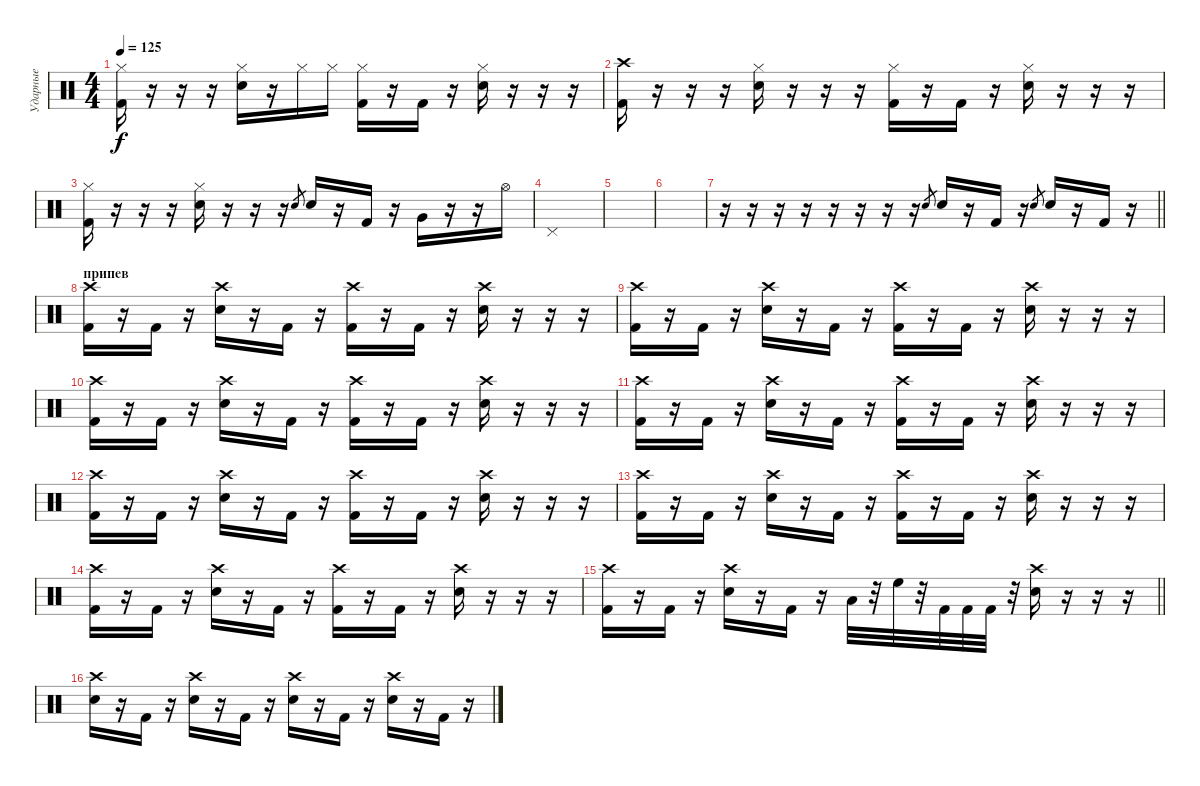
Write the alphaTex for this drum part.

\track ("Ударные" "Ударные") {instrument percussion}
\staff {score}
\articulation defaults
\ts (4 4)
\tempo 125
\clef neutral
\ks c
("Hi-Hat (closed)" "Kick (hit) 2").16{dy f} r.16 r.16 r.16 ("Hi-Hat (closed)" "Electric Snare (hit)").16 r.16 "Hi-Hat (closed)".16 "Hi-Hat (closed)".16 ("Hi-Hat (closed)" "Kick (hit) 2").16 r.16 "Kick (hit) 2".16 r.16 ("Hi-Hat (closed)" "Electric Snare (hit)").16 r.16 r.16 r.16 |
("Crash high (hit)" "Kick (hit) 2").16 r.16 r.16 r.16 ("Hi-Hat (closed)" "Electric Snare (hit)").16 r.16 r.16 r.16 ("Hi-Hat (closed)" "Kick (hit) 2").16 r.16 "Kick (hit) 2".16 r.16 ("Hi-Hat (closed)" "Electric Snare (hit)").16 r.16 r.16 r.16 |
("Hi-Hat (closed)" "Kick (hit) 2").16 r.16 r.16 r.16 ("Hi-Hat (closed)" "Electric Snare (hit)").16 r.16 r.16 r.16 "Electric Snare (hit)".8{gr} "Electric Snare (hit)".16 r.16 "Kick (hit) 2".16 r.16 "Very Low Tom (hit)".16 r.16 r.16 "Hi-Hat (open)".16 |
"Pedal Hi-Hat (hit)".1 |
|
|
\barLineRight lightlight
r.16 r.16 r.16 r.16 r.16 r.16 r.16 r.16 "Electric Snare (hit)".8{gr} "Electric Snare (hit)".16 r.16 "Kick (hit) 2".16 r.16 "Electric Snare (hit)".8{gr} "Electric Snare (hit)".16 r.16 "Kick (hit) 2".16 r.16 |
\section ("" "припев")
("Crash high (hit)" "Kick (hit) 2").16 r.16 "Kick (hit) 2".16 r.16 ("Crash high (hit)" "Electric Snare (hit)").16 r.16 "Kick (hit) 2".16 r.16 ("Crash high (hit)" "Kick (hit) 2").16 r.16 "Kick (hit) 2".16 r.16 ("Crash high (hit)" "Electric Snare (hit)").16 r.16 r.16 r.16 |
("Crash high (hit)" "Kick (hit) 2").16 r.16 "Kick (hit) 2".16 r.16 ("Crash high (hit)" "Electric Snare (hit)").16 r.16 "Kick (hit) 2".16 r.16 ("Crash high (hit)" "Kick (hit) 2").16 r.16 "Kick (hit) 2".16 r.16 ("Crash high (hit)" "Electric Snare (hit)").16 r.16 r.16 r.16 |
("Crash high (hit)" "Kick (hit) 2").16 r.16 "Kick (hit) 2".16 r.16 ("Crash high (hit)" "Electric Snare (hit)").16 r.16 "Kick (hit) 2".16 r.16 ("Crash high (hit)" "Kick (hit) 2").16 r.16 "Kick (hit) 2".16 r.16 ("Crash high (hit)" "Electric Snare (hit)").16 r.16 r.16 r.16 |
("Crash high (hit)" "Kick (hit) 2").16 r.16 "Kick (hit) 2".16 r.16 ("Crash high (hit)" "Electric Snare (hit)").16 r.16 "Kick (hit) 2".16 r.16 ("Crash high (hit)" "Kick (hit) 2").16 r.16 "Kick (hit) 2".16 r.16 ("Crash high (hit)" "Electric Snare (hit)").16 r.16 r.16 r.16 |
("Crash high (hit)" "Kick (hit) 2").16 r.16 "Kick (hit) 2".16 r.16 ("Crash high (hit)" "Electric Snare (hit)").16 r.16 "Kick (hit) 2".16 r.16 ("Crash high (hit)" "Kick (hit) 2").16 r.16 "Kick (hit) 2".16 r.16 ("Crash high (hit)" "Electric Snare (hit)").16 r.16 r.16 r.16 |
("Crash high (hit)" "Kick (hit) 2").16 r.16 "Kick (hit) 2".16 r.16 ("Crash high (hit)" "Electric Snare (hit)").16 r.16 "Kick (hit) 2".16 r.16 ("Crash high (hit)" "Kick (hit) 2").16 r.16 "Kick (hit) 2".16 r.16 ("Crash high (hit)" "Electric Snare (hit)").16 r.16 r.16 r.16 |
("Crash high (hit)" "Kick (hit) 2").16 r.16 "Kick (hit) 2".16 r.16 ("Crash high (hit)" "Electric Snare (hit)").16 r.16 "Kick (hit) 2".16 r.16 ("Crash high (hit)" "Kick (hit) 2").16 r.16 "Kick (hit) 2".16 r.16 ("Crash high (hit)" "Electric Snare (hit)").16 r.16 r.16 r.16 |
\barLineRight lightlight
("Crash high (hit)" "Kick (hit) 2").16 r.16 "Kick (hit) 2".16 r.16 ("Crash high (hit)" "Electric Snare (hit)").16 r.16 "Kick (hit) 2".16 r.16 "Low Tom (hit)".32 r.32 "High Floor Tom (hit)".32 r.32 "Kick (hit) 2".32 "Kick (hit) 2".32 "Kick (hit) 2".32 r.32 ("Crash high (hit)" "Electric Snare (hit)").16 r.16 r.16 r.16 |
("Crash high (hit)" "Electric Snare (hit)").16 r.16 "Kick (hit) 2".16 r.16 ("Crash high (hit)" "Electric Snare (hit)").16 r.16 "Kick (hit) 2".16 r.16 ("Crash high (hit)" "Electric Snare (hit)").16 r.16 "Kick (hit) 2".16 r.16 ("Crash high (hit)" "Electric Snare (hit)").16 r.16 "Kick (hit) 2".16 r.16
